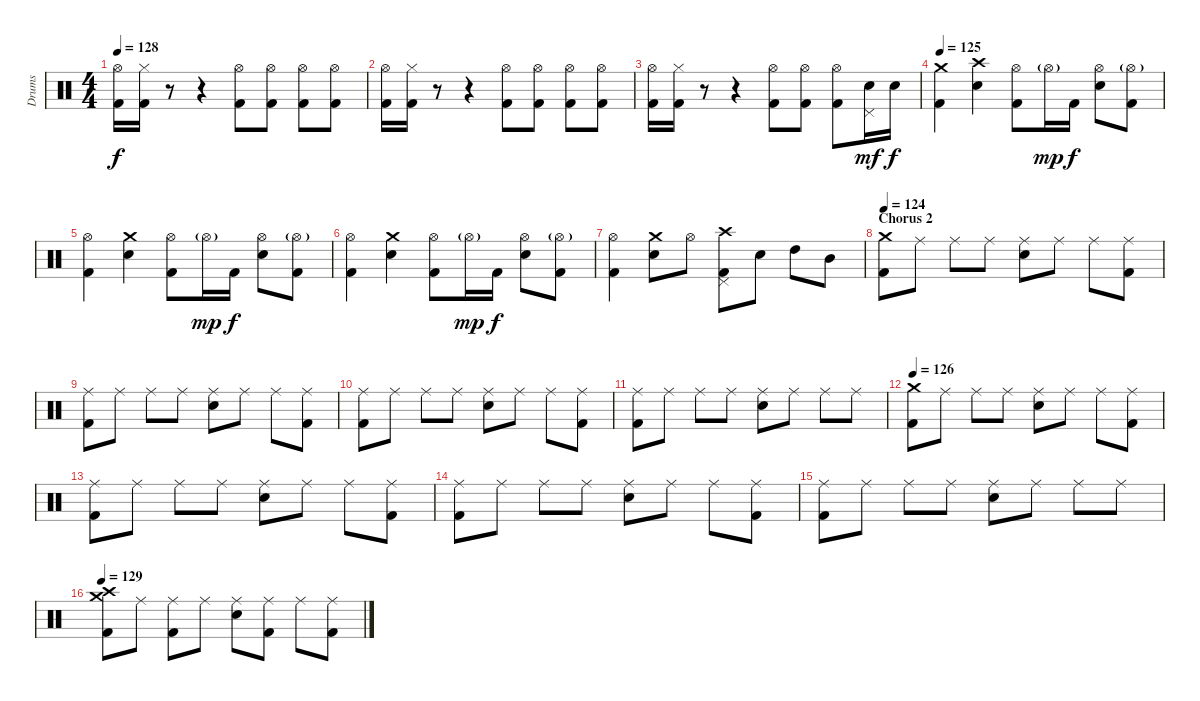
\track ("Drums" "Drums") {instrument percussion}
\staff {score}
\articulation defaults
\ts (4 4)
\tempo 128
\clef neutral
\ks c
("Hi-Hat (open)" "Kick (hit) 2").16{dy f} ("Hi-Hat (closed)" "Kick (hit) 2").16 r.8 r.4 ("Hi-Hat (open)" "Kick (hit) 2").8 ("Hi-Hat (open)" "Kick (hit) 2").8 ("Hi-Hat (open)" "Kick (hit) 2").8 ("Hi-Hat (open)" "Kick (hit) 2").8 |
("Hi-Hat (open)" "Kick (hit) 2").16 ("Hi-Hat (closed)" "Kick (hit) 2").16 r.8 r.4 ("Hi-Hat (open)" "Kick (hit) 2").8 ("Hi-Hat (open)" "Kick (hit) 2").8 ("Hi-Hat (open)" "Kick (hit) 2").8 ("Hi-Hat (open)" "Kick (hit) 2").8 |
("Hi-Hat (open)" "Kick (hit) 2").16 ("Hi-Hat (closed)" "Kick (hit) 2").16 r.8 r.4 ("Hi-Hat (open)" "Kick (hit) 2").8 ("Hi-Hat (open)" "Kick (hit) 2").8 ("Hi-Hat (open)" "Kick (hit) 2").8 ("Snare (hit) 2" "Pedal Hi-Hat (hit)").16{dy mf} "Snare (hit) 2".16{dy f} |
\tempo 125
("Crash medium (hit)" "Kick (hit) 2").4 ("Crash high (hit)" "Snare (hit) 2").4 ("Hi-Hat (open)" "Kick (hit) 2").8 "Hi-Hat (open)"{g}.16{dy mp} "Kick (hit) 2".16{dy f} ("Hi-Hat (open)" "Snare (hit) 2").8 ("Hi-Hat (open)"{g} "Kick (hit) 2").8 |
("Hi-Hat (open)" "Kick (hit) 2").4 ("Crash medium (hit)" "Snare (hit) 2").4 ("Hi-Hat (open)" "Kick (hit) 2").8 "Hi-Hat (open)"{g}.16{dy mp} "Kick (hit) 2".16{dy f} ("Hi-Hat (open)" "Snare (hit) 2").8 ("Hi-Hat (open)"{g} "Kick (hit) 2").8 |
("Hi-Hat (open)" "Kick (hit) 2").4 ("Crash medium (hit)" "Snare (hit) 2").4 ("Hi-Hat (open)" "Kick (hit) 2").8 "Hi-Hat (open)"{g}.16{dy mp} "Kick (hit) 2".16{dy f} ("Hi-Hat (open)" "Snare (hit) 2").8 ("Hi-Hat (open)"{g} "Kick (hit) 2").8 |
("Hi-Hat (open)" "Kick (hit) 2").4 ("Crash medium (hit)" "Snare (hit) 2").8 "Hi-Hat (open)".8 ("Crash high (hit)" "Kick (hit) 2" "Pedal Hi-Hat (hit)").8 "Snare (hit) 2".8 "High Tom (hit)".8 "Mid Tom (hit)".8 |
\section ("" "Chorus 2")
\tempo 124
("Crash medium (hit)" "Kick (hit) 2").8 "Ride (middle)".8 "Ride (middle)".8 "Ride (middle)".8 ("Ride (middle)" "Snare (hit) 2").8 "Ride (middle)".8 "Ride (middle)".8 ("Ride (middle)" "Kick (hit) 2").8 |
("Ride (middle)" "Kick (hit) 2").8 "Ride (middle)".8 "Ride (middle)".8 "Ride (middle)".8 ("Ride (middle)" "Snare (hit) 2").8 "Ride (middle)".8 "Ride (middle)".8 ("Ride (middle)" "Kick (hit) 2").8 |
("Ride (middle)" "Kick (hit) 2").8 "Ride (middle)".8 "Ride (middle)".8 "Ride (middle)".8 ("Ride (middle)" "Snare (hit) 2").8 "Ride (middle)".8 "Ride (middle)".8 ("Ride (middle)" "Kick (hit) 2").8 |
("Ride (middle)" "Kick (hit) 2").8 "Ride (middle)".8 "Ride (middle)".8 "Ride (middle)".8 ("Ride (middle)" "Snare (hit) 2").8 "Ride (middle)".8 "Ride (middle)".8 "Ride (middle)".8 |
\tempo 126
("Crash medium (hit)" "Kick (hit) 2").8 "Ride (middle)".8 "Ride (middle)".8 "Ride (middle)".8 ("Ride (middle)" "Snare (hit) 2").8 "Ride (middle)".8 "Ride (middle)".8 ("Ride (middle)" "Kick (hit) 2").8 |
("Ride (middle)" "Kick (hit) 2").8 "Ride (middle)".8 "Ride (middle)".8 "Ride (middle)".8 ("Ride (middle)" "Snare (hit) 2").8 "Ride (middle)".8 "Ride (middle)".8 ("Ride (middle)" "Kick (hit) 2").8 |
("Ride (middle)" "Kick (hit) 2").8 "Ride (middle)".8 "Ride (middle)".8 "Ride (middle)".8 ("Ride (middle)" "Snare (hit) 2").8 "Ride (middle)".8 "Ride (middle)".8 ("Ride (middle)" "Kick (hit) 2").8 |
("Ride (middle)" "Kick (hit) 2").8 "Ride (middle)".8 "Ride (middle)".8 "Ride (middle)".8 ("Ride (middle)" "Snare (hit) 2").8 "Ride (middle)".8 "Ride (middle)".8 "Ride (middle)".8 |
\tempo 129
("Crash medium (hit)" "Crash high (hit)" "Kick (hit) 2").8 "Ride (middle)".8 ("Ride (middle)" "Kick (hit) 2").8 "Ride (middle)".8 ("Ride (middle)" "Snare (hit) 2").8 ("Ride (middle)" "Kick (hit) 2").8 "Ride (middle)".8 ("Ride (middle)" "Kick (hit) 2").8
